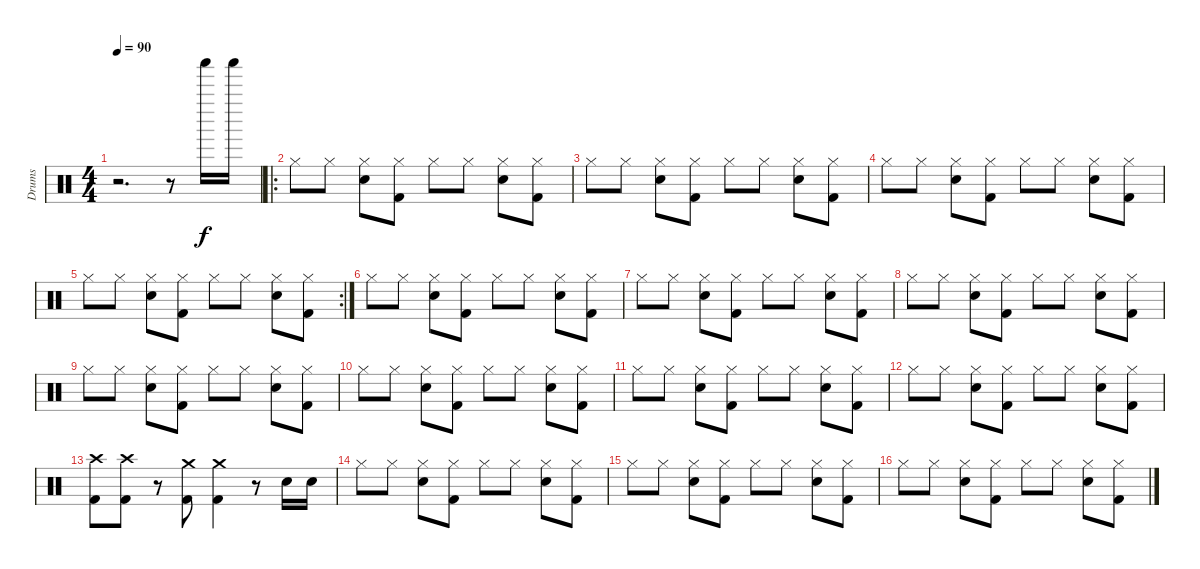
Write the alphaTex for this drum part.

\track ("Drums" "Drums") {instrument percussion}
\staff {score}
\articulation defaults
\ts (4 4)
\tempo 90
\clef neutral
\ks c
r.2{d dy f} r.8 "Shaker (hit)".16 "Shaker (hit)".16 |
\ro "Hi-Hat (closed)".8 "Hi-Hat (closed)".8
("Hi-Hat (closed)" "Snare (hit) 2").8 ("Hi-Hat (closed)" "Kick (hit) 2").8 "Hi-Hat (closed)".8 "Hi-Hat (closed)".8 ("Hi-Hat (closed)" "Snare (hit) 2").8 ("Hi-Hat (closed)" "Kick (hit) 2").8 |
"Hi-Hat (closed)".8 "Hi-Hat (closed)".8 ("Hi-Hat (closed)" "Snare (hit) 2").8 ("Hi-Hat (closed)" "Kick (hit) 2").8 "Hi-Hat (closed)".8 "Hi-Hat (closed)".8 ("Hi-Hat (closed)" "Snare (hit) 2").8 ("Hi-Hat (closed)" "Kick (hit) 2").8 |
"Hi-Hat (closed)".8 "Hi-Hat (closed)".8 ("Hi-Hat (closed)" "Snare (hit) 2").8 ("Hi-Hat (closed)" "Kick (hit) 2").8 "Hi-Hat (closed)".8 "Hi-Hat (closed)".8 ("Hi-Hat (closed)" "Snare (hit) 2").8 ("Hi-Hat (closed)" "Kick (hit) 2").8 |
\rc 2 "Hi-Hat (closed)".8 "Hi-Hat (closed)".8
("Hi-Hat (closed)" "Snare (hit) 2").8 ("Hi-Hat (closed)" "Kick (hit) 2").8 "Hi-Hat (closed)".8 "Hi-Hat (closed)".8 ("Hi-Hat (closed)" "Snare (hit) 2").8 ("Hi-Hat (closed)" "Kick (hit) 2").8 |
"Hi-Hat (closed)".8 "Hi-Hat (closed)".8 ("Hi-Hat (closed)" "Snare (hit) 2").8 ("Hi-Hat (closed)" "Kick (hit) 2").8 "Hi-Hat (closed)".8 "Hi-Hat (closed)".8 ("Hi-Hat (closed)" "Snare (hit) 2").8 ("Hi-Hat (closed)" "Kick (hit) 2").8 |
"Hi-Hat (closed)".8 "Hi-Hat (closed)".8 ("Hi-Hat (closed)" "Snare (hit) 2").8 ("Hi-Hat (closed)" "Kick (hit) 2").8 "Hi-Hat (closed)".8 "Hi-Hat (closed)".8 ("Hi-Hat (closed)" "Snare (hit) 2").8 ("Hi-Hat (closed)" "Kick (hit) 2").8 |
"Hi-Hat (closed)".8 "Hi-Hat (closed)".8 ("Hi-Hat (closed)" "Snare (hit) 2").8 ("Hi-Hat (closed)" "Kick (hit) 2").8 "Hi-Hat (closed)".8 "Hi-Hat (closed)".8 ("Hi-Hat (closed)" "Snare (hit) 2").8 ("Hi-Hat (closed)" "Kick (hit) 2").8 |
"Hi-Hat (closed)".8 "Hi-Hat (closed)".8 ("Hi-Hat (closed)" "Snare (hit) 2").8 ("Hi-Hat (closed)" "Kick (hit) 2").8 "Hi-Hat (closed)".8 "Hi-Hat (closed)".8 ("Hi-Hat (closed)" "Snare (hit) 2").8 ("Hi-Hat (closed)" "Kick (hit) 2").8 |
"Hi-Hat (closed)".8 "Hi-Hat (closed)".8 ("Hi-Hat (closed)" "Snare (hit) 2").8 ("Hi-Hat (closed)" "Kick (hit) 2").8 "Hi-Hat (closed)".8 "Hi-Hat (closed)".8 ("Hi-Hat (closed)" "Snare (hit) 2").8 ("Hi-Hat (closed)" "Kick (hit) 2").8 |
"Hi-Hat (closed)".8 "Hi-Hat (closed)".8 ("Hi-Hat (closed)" "Snare (hit) 2").8 ("Hi-Hat (closed)" "Kick (hit) 2").8 "Hi-Hat (closed)".8 "Hi-Hat (closed)".8 ("Hi-Hat (closed)" "Snare (hit) 2").8 ("Hi-Hat (closed)" "Kick (hit) 2").8 |
"Hi-Hat (closed)".8 "Hi-Hat (closed)".8 ("Hi-Hat (closed)" "Snare (hit) 2").8 ("Hi-Hat (closed)" "Kick (hit) 2").8 "Hi-Hat (closed)".8 "Hi-Hat (closed)".8 ("Hi-Hat (closed)" "Snare (hit) 2").8 ("Hi-Hat (closed)" "Kick (hit) 2").8 |
("Crash high (hit)" "Kick (hit) 2").8 ("Crash high (hit)" "Kick (hit) 2").8 r.8 ("Crash medium (hit)" "Kick (hit) 2").8 ("Crash medium (hit)" "Kick (hit) 2").4 r.8 "Snare (hit) 2".16 "Snare (hit) 2".16 |
"Hi-Hat (closed)".8 "Hi-Hat (closed)".8 ("Hi-Hat (closed)" "Snare (hit) 2").8 ("Hi-Hat (closed)" "Kick (hit) 2").8 "Hi-Hat (closed)".8 "Hi-Hat (closed)".8 ("Hi-Hat (closed)" "Snare (hit) 2").8 ("Hi-Hat (closed)" "Kick (hit) 2").8 |
"Hi-Hat (closed)".8 "Hi-Hat (closed)".8 ("Hi-Hat (closed)" "Snare (hit) 2").8 ("Hi-Hat (closed)" "Kick (hit) 2").8 "Hi-Hat (closed)".8 "Hi-Hat (closed)".8 ("Hi-Hat (closed)" "Snare (hit) 2").8 ("Hi-Hat (closed)" "Kick (hit) 2").8 |
"Hi-Hat (closed)".8 "Hi-Hat (closed)".8 ("Hi-Hat (closed)" "Snare (hit) 2").8 ("Hi-Hat (closed)" "Kick (hit) 2").8 "Hi-Hat (closed)".8 "Hi-Hat (closed)".8 ("Hi-Hat (closed)" "Snare (hit) 2").8 ("Hi-Hat (closed)" "Kick (hit) 2").8
